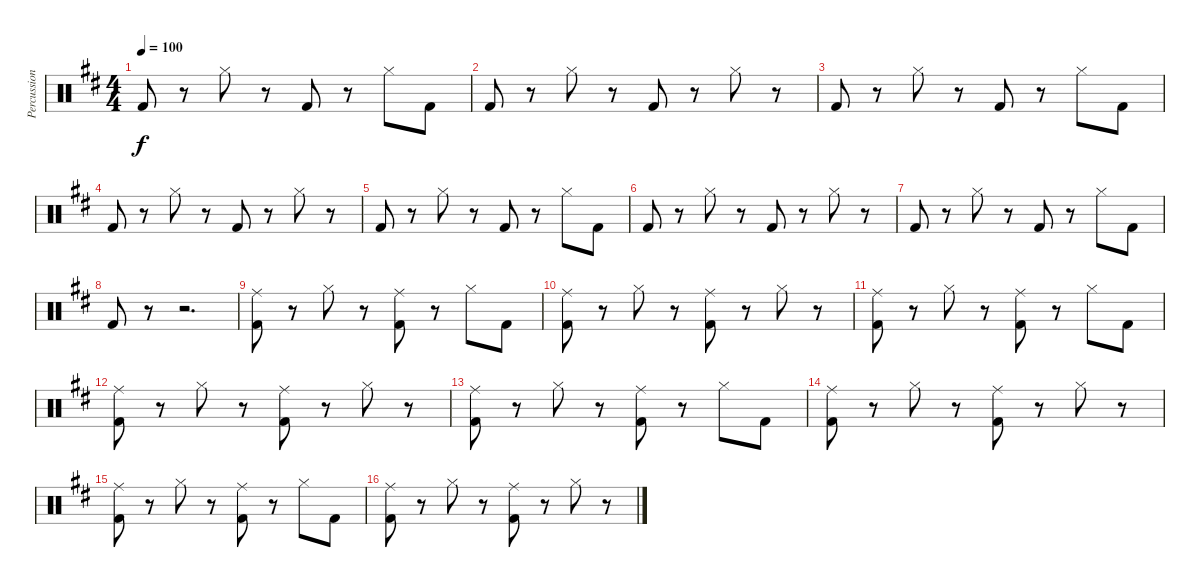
\track ("Percussion" "Percussion") {instrument percussion}
\staff {score}
\articulation defaults
\ts (4 4)
\tempo 100
\clef neutral
\ks d "Kick (hit) 2".8{dy f}
r.8 "Hi-Hat (closed)".8 r.8 "Kick (hit) 2".8 r.8 "Hi-Hat (closed)".8 "Kick (hit) 2".8 |
"Kick (hit) 2".8 r.8 "Hi-Hat (closed)".8 r.8 "Kick (hit) 2".8 r.8 "Hi-Hat (closed)".8 r.8 |
"Kick (hit) 2".8 r.8 "Hi-Hat (closed)".8 r.8 "Kick (hit) 2".8 r.8 "Hi-Hat (closed)".8 "Kick (hit) 2".8 |
"Kick (hit) 2".8 r.8 "Hi-Hat (closed)".8 r.8 "Kick (hit) 2".8 r.8 "Hi-Hat (closed)".8 r.8 |
"Kick (hit) 2".8 r.8 "Hi-Hat (closed)".8 r.8 "Kick (hit) 2".8 r.8 "Hi-Hat (closed)".8 "Kick (hit) 2".8 |
"Kick (hit) 2".8 r.8 "Hi-Hat (closed)".8 r.8 "Kick (hit) 2".8 r.8 "Hi-Hat (closed)".8 r.8 |
"Kick (hit) 2".8 r.8 "Hi-Hat (closed)".8 r.8 "Kick (hit) 2".8 r.8 "Hi-Hat (closed)".8 "Kick (hit) 2".8 |
"Kick (hit) 2".8 r.8 r.2{d} |
("Ride (middle)" "Kick (hit) 2").8 r.8 "Hi-Hat (closed)".8 r.8 ("Ride (middle)" "Kick (hit) 2").8 r.8 "Hi-Hat (closed)".8 "Kick (hit) 2".8 |
("Ride (middle)" "Kick (hit) 2").8 r.8 "Hi-Hat (closed)".8 r.8 ("Ride (middle)" "Kick (hit) 2").8 r.8 "Hi-Hat (closed)".8 r.8 |
("Ride (middle)" "Kick (hit) 2").8 r.8 "Hi-Hat (closed)".8 r.8 ("Ride (middle)" "Kick (hit) 2").8 r.8 "Hi-Hat (closed)".8 "Kick (hit) 2".8 |
("Ride (middle)" "Kick (hit) 2").8 r.8 "Hi-Hat (closed)".8 r.8 ("Ride (middle)" "Kick (hit) 2").8 r.8 "Hi-Hat (closed)".8 r.8 |
("Ride (middle)" "Kick (hit) 2").8 r.8 "Hi-Hat (closed)".8 r.8 ("Ride (middle)" "Kick (hit) 2").8 r.8 "Hi-Hat (closed)".8 "Kick (hit) 2".8 |
("Ride (middle)" "Kick (hit) 2").8 r.8 "Hi-Hat (closed)".8 r.8 ("Ride (middle)" "Kick (hit) 2").8 r.8 "Hi-Hat (closed)".8 r.8 |
("Ride (middle)" "Kick (hit) 2").8 r.8 "Hi-Hat (closed)".8 r.8 ("Ride (middle)" "Kick (hit) 2").8 r.8 "Hi-Hat (closed)".8 "Kick (hit) 2".8 |
("Ride (middle)" "Kick (hit) 2").8 r.8 "Hi-Hat (closed)".8 r.8 ("Ride (middle)" "Kick (hit) 2").8 r.8 "Hi-Hat (closed)".8 r.8
